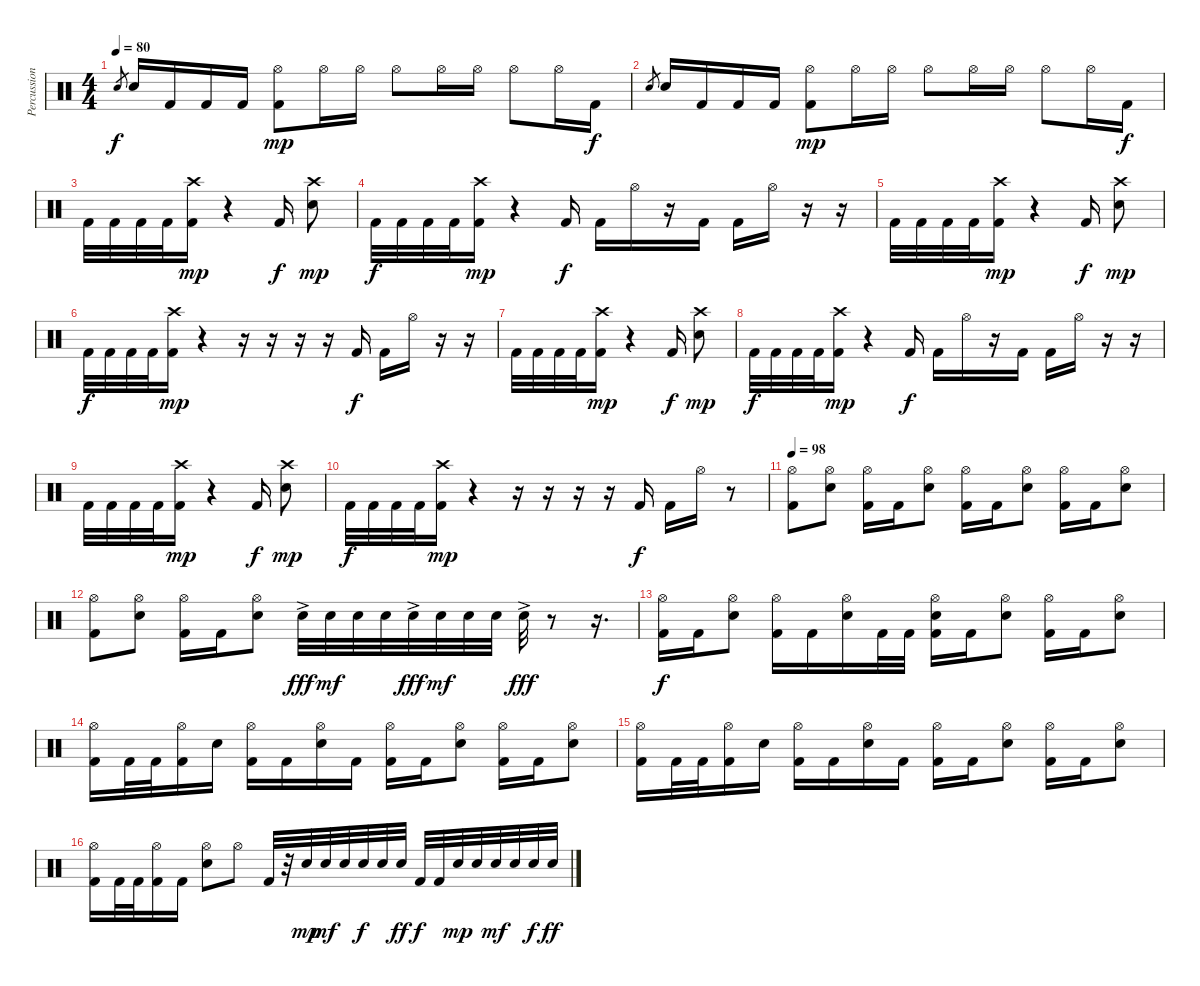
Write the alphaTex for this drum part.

\track ("Percussion" "Percussion") {instrument percussion}
\staff {score}
\articulation defaults
\ts (4 4)
\tempo 80
\clef neutral
\ks c "Electric Snare (hit)".8{gr dy f} "Electric Snare (hit)".16 "Kick (hit) 2".16 "Kick (hit) 2".16 "Kick (hit) 2".16
("Hi-Hat (open)" "Kick (hit) 2").8{dy mp} "Hi-Hat (open)".16 "Hi-Hat (open)".16 "Hi-Hat (open)".8 "Hi-Hat (open)".16 "Hi-Hat (open)".16 "Hi-Hat (open)".8 "Hi-Hat (open)".16 "Kick (hit) 2".16{dy f} |
"Electric Snare (hit)".8{gr} "Electric Snare (hit)".16 "Kick (hit) 2".16 "Kick (hit) 2".16 "Kick (hit) 2".16 ("Hi-Hat (open)" "Kick (hit) 2").8{dy mp} "Hi-Hat (open)".16 "Hi-Hat (open)".16 "Hi-Hat (open)".8 "Hi-Hat (open)".16 "Hi-Hat (open)".16 "Hi-Hat (open)".8 "Hi-Hat (open)".16 "Kick (hit) 2".16{dy f} |
"Kick (hit) 2".32 "Kick (hit) 2".32 "Kick (hit) 2".32 "Kick (hit) 2".32 ("Crash high (hit)" "Kick (hit) 2").16{dy mp} r.4 "Kick (hit) 2".16{dy f} ("Crash high (hit)" "Electric Snare (hit)").8{dy mp} |
"Kick (hit) 2".32{dy f} "Kick (hit) 2".32 "Kick (hit) 2".32 "Kick (hit) 2".32 ("Crash high (hit)" "Kick (hit) 2").16{dy mp} r.4 "Kick (hit) 2".16{dy f} "Kick (hit) 2".16 "Hi-Hat (open)".16 r.16 "Kick (hit) 2".16 "Kick (hit) 2".16 "Hi-Hat (open)".16 r.16 r.16 |
"Kick (hit) 2".32 "Kick (hit) 2".32 "Kick (hit) 2".32 "Kick (hit) 2".32 ("Crash high (hit)" "Kick (hit) 2").16{dy mp} r.4 "Kick (hit) 2".16{dy f} ("Crash high (hit)" "Electric Snare (hit)").8{dy mp} |
"Kick (hit) 2".32{dy f} "Kick (hit) 2".32 "Kick (hit) 2".32 "Kick (hit) 2".32 ("Crash high (hit)" "Kick (hit) 2").16{dy mp} r.4 r.16 r.16 r.16 r.16 "Kick (hit) 2".16{dy f} "Kick (hit) 2".16 "Hi-Hat (open)".16 r.16 r.16 |
"Kick (hit) 2".32 "Kick (hit) 2".32 "Kick (hit) 2".32 "Kick (hit) 2".32 ("Crash high (hit)" "Kick (hit) 2").16{dy mp} r.4 "Kick (hit) 2".16{dy f} ("Crash high (hit)" "Electric Snare (hit)").8{dy mp} |
"Kick (hit) 2".32{dy f} "Kick (hit) 2".32 "Kick (hit) 2".32 "Kick (hit) 2".32 ("Crash high (hit)" "Kick (hit) 2").16{dy mp} r.4 "Kick (hit) 2".16{dy f} "Kick (hit) 2".16 "Hi-Hat (open)".16 r.16 "Kick (hit) 2".16 "Kick (hit) 2".16 "Hi-Hat (open)".16 r.16 r.16 |
"Kick (hit) 2".32 "Kick (hit) 2".32 "Kick (hit) 2".32 "Kick (hit) 2".32 ("Crash high (hit)" "Kick (hit) 2").16{dy mp} r.4 "Kick (hit) 2".16{dy f} ("Crash high (hit)" "Electric Snare (hit)").8{dy mp} |
"Kick (hit) 2".32{dy f} "Kick (hit) 2".32 "Kick (hit) 2".32 "Kick (hit) 2".32 ("Crash high (hit)" "Kick (hit) 2").16{dy mp} r.4 r.16 r.16 r.16 r.16 "Kick (hit) 2".16{dy f} "Kick (hit) 2".16 "Hi-Hat (open)".16 r.8 |
\tempo 98
("Hi-Hat (open)" "Kick (hit) 2").8 ("Hi-Hat (open)" "Electric Snare (hit)").8 ("Hi-Hat (open)" "Kick (hit) 2").16 "Kick (hit) 2".16 ("Hi-Hat (open)" "Electric Snare (hit)").8 ("Hi-Hat (open)" "Kick (hit) 2").16 "Kick (hit) 2".16 ("Hi-Hat (open)" "Electric Snare (hit)").8 ("Hi-Hat (open)" "Kick (hit) 2").16 "Kick (hit) 2".16 ("Hi-Hat (open)" "Electric Snare (hit)").8 |
("Hi-Hat (open)" "Kick (hit) 2").8 ("Hi-Hat (open)" "Electric Snare (hit)").8 ("Hi-Hat (open)" "Kick (hit) 2").16 "Kick (hit) 2".16 ("Hi-Hat (open)" "Electric Snare (hit)").8 "Electric Snare (hit)"{ac}.32{dy fff} "Electric Snare (hit)".32{dy mf} "Electric Snare (hit)".32 "Electric Snare (hit)".32 "Electric Snare (hit)"{ac}.32{dy fff} "Electric Snare (hit)".32{dy mf} "Electric Snare (hit)".32 "Electric Snare (hit)".32 "Electric Snare (hit)"{ac}.32{dy fff} r.8 r.16{d} |
("Hi-Hat (open)" "Kick (hit) 2").16{dy f} "Kick (hit) 2".16 ("Hi-Hat (open)" "Electric Snare (hit)").8 ("Hi-Hat (open)" "Kick (hit) 2").16 "Kick (hit) 2".16 ("Hi-Hat (open)" "Electric Snare (hit)").16 "Kick (hit) 2".32 "Kick (hit) 2".32 ("Hi-Hat (open)" "Electric Snare (hit)" "Kick (hit) 2").16 "Kick (hit) 2".16 ("Hi-Hat (open)" "Electric Snare (hit)").8 ("Hi-Hat (open)" "Kick (hit) 2").16 "Kick (hit) 2".16 ("Hi-Hat (open)" "Electric Snare (hit)").8 |
("Hi-Hat (open)" "Kick (hit) 2").16 "Kick (hit) 2".32 "Kick (hit) 2".32 ("Hi-Hat (open)" "Kick (hit) 2").16 "Electric Snare (hit)".16 ("Hi-Hat (open)" "Kick (hit) 2").16 "Kick (hit) 2".16 ("Hi-Hat (open)" "Electric Snare (hit)").16 "Kick (hit) 2".16 ("Hi-Hat (open)" "Kick (hit) 2").16 "Kick (hit) 2".16 ("Hi-Hat (open)" "Electric Snare (hit)").8 ("Hi-Hat (open)" "Kick (hit) 2").16 "Kick (hit) 2".16 ("Hi-Hat (open)" "Electric Snare (hit)").8 |
("Hi-Hat (open)" "Kick (hit) 2").16 "Kick (hit) 2".32 "Kick (hit) 2".32 ("Hi-Hat (open)" "Kick (hit) 2").16 "Electric Snare (hit)".16 ("Hi-Hat (open)" "Kick (hit) 2").16 "Kick (hit) 2".16 ("Hi-Hat (open)" "Electric Snare (hit)").16 "Kick (hit) 2".16 ("Hi-Hat (open)" "Kick (hit) 2").16 "Kick (hit) 2".16 ("Hi-Hat (open)" "Electric Snare (hit)").8 ("Hi-Hat (open)" "Kick (hit) 2").16 "Kick (hit) 2".16 ("Hi-Hat (open)" "Electric Snare (hit)").8 |
("Hi-Hat (open)" "Kick (hit) 2").16 "Kick (hit) 2".32 "Kick (hit) 2".32 ("Hi-Hat (open)" "Kick (hit) 2").16 "Kick (hit) 2".16 ("Hi-Hat (open)" "Electric Snare (hit)").8 "Hi-Hat (open)".8 "Kick (hit) 2".32 r.32 "Electric Snare (hit)".32{dy mp} "Electric Snare (hit)".32{dy mf} "Electric Snare (hit)".32 "Electric Snare (hit)".32{dy f} "Electric Snare (hit)".32 "Electric Snare (hit)".32{dy ff} "Kick (hit) 2".32{dy f} "Kick (hit) 2".32 "Electric Snare (hit)".32{dy mp} "Electric Snare (hit)".32 "Electric Snare (hit)".32{dy mf} "Electric Snare (hit)".32 "Electric Snare (hit)".32{dy f} "Electric Snare (hit)".32{dy ff}
